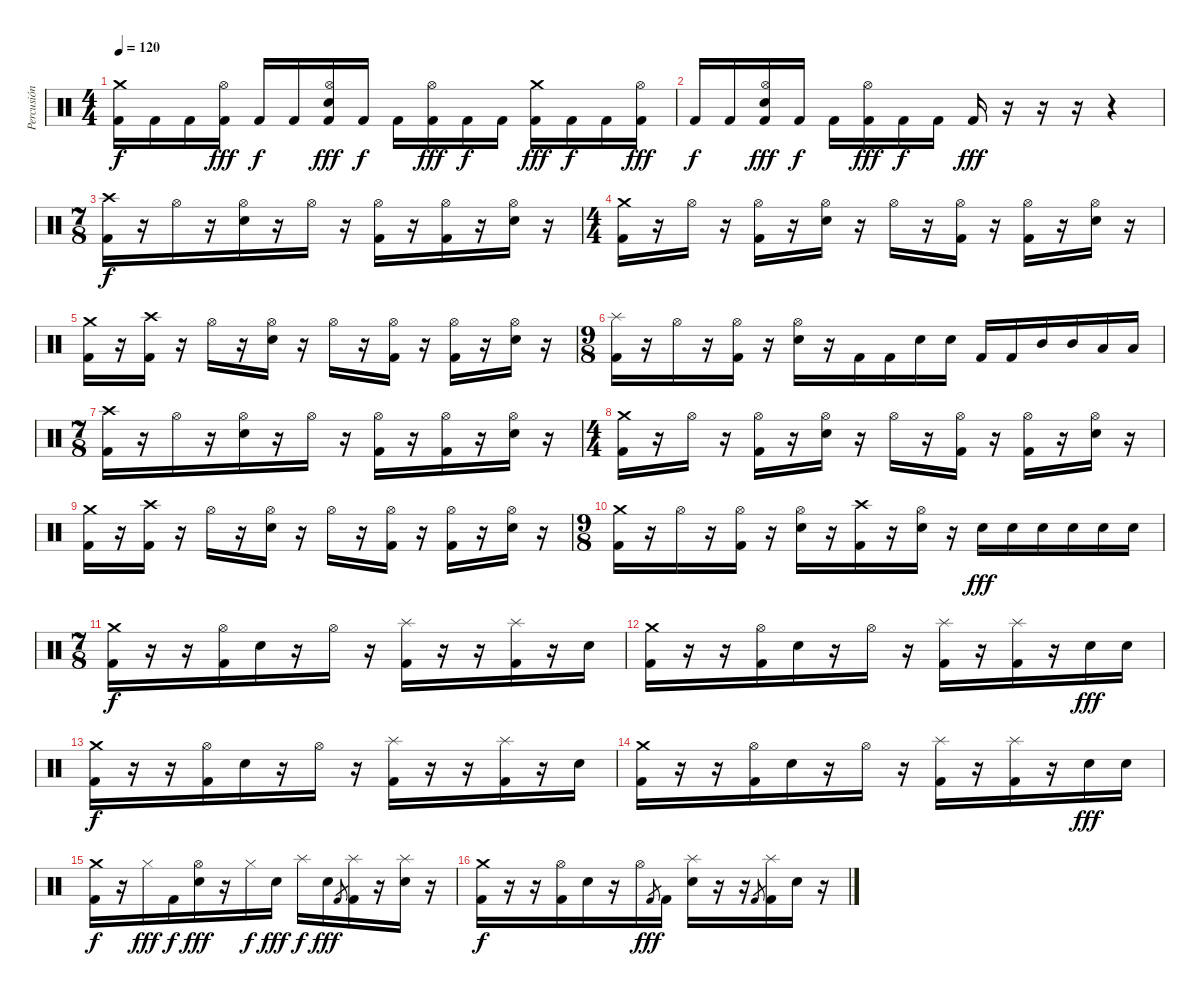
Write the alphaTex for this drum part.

\track ("Percusión" "Percusión") {instrument percussion}
\staff {score}
\articulation defaults
\ts (4 4)
\tempo 120
\clef neutral
\ks c
("Crash medium (hit)" "Kick (hit) 2").16{dy f} "Kick (hit) 2".16 "Kick (hit) 2".16 ("Hi-Hat (open)" "Kick (hit) 2").16{dy fff} "Kick (hit) 2".16{dy f} "Kick (hit) 2".16 ("Hi-Hat (open)" "Electric Snare (hit)" "Kick (hit) 2").16{dy fff} "Kick (hit) 2".16{dy f} "Kick (hit) 2".16 ("Hi-Hat (open)" "Kick (hit) 2").16{dy fff} "Kick (hit) 2".16{dy f} "Kick (hit) 2".16 ("Crash medium (hit)" "Kick (hit) 2").16{dy fff} "Kick (hit) 2".16{dy f} "Kick (hit) 2".16 ("Hi-Hat (open)" "Kick (hit) 2").16{dy fff} |
"Kick (hit) 2".16{dy f} "Kick (hit) 2".16 ("Hi-Hat (open)" "Electric Snare (hit)" "Kick (hit) 2").16{dy fff} "Kick (hit) 2".16{dy f} "Kick (hit) 2".16 ("Hi-Hat (open)" "Kick (hit) 2").16{dy fff} "Kick (hit) 2".16{dy f} "Kick (hit) 2".16 "Kick (hit) 2".16{dy fff} r.16 r.16 r.16 r.4 |
\ts (7 8)
("Crash high (hit)" "Kick (hit) 2").16{dy f} r.16 "Hi-Hat (open)".16 r.16 ("Hi-Hat (open)" "Electric Snare (hit)").16 r.16 "Hi-Hat (open)".16 r.16 ("Hi-Hat (open)" "Kick (hit) 2").16 r.16 ("Hi-Hat (open)" "Kick (hit) 2").16 r.16 ("Hi-Hat (open)" "Electric Snare (hit)").16 r.16 |
\ts (4 4)
("Crash medium (hit)" "Kick (hit) 2").16 r.16 "Hi-Hat (open)".16 r.16 ("Hi-Hat (open)" "Kick (hit) 2").16 r.16 ("Hi-Hat (open)" "Electric Snare (hit)").16 r.16 "Hi-Hat (open)".16 r.16 ("Hi-Hat (open)" "Kick (hit) 2").16 r.16 ("Hi-Hat (open)" "Kick (hit) 2").16 r.16 ("Hi-Hat (open)" "Electric Snare (hit)").16 r.16 |
("Crash medium (hit)" "Kick (hit) 2").16 r.16 ("Crash high (hit)" "Kick (hit) 2").16 r.16 "Hi-Hat (open)".16 r.16 ("Hi-Hat (open)" "Electric Snare (hit)").16 r.16 "Hi-Hat (open)".16 r.16 ("Hi-Hat (open)" "Kick (hit) 2").16 r.16 ("Hi-Hat (open)" "Kick (hit) 2").16 r.16 ("Hi-Hat (open)" "Electric Snare (hit)").16 r.16 |
\ts (9 8)
("Splash (hit)" "Kick (hit) 2").16 r.16 "Hi-Hat (open)".16 r.16 ("Hi-Hat (open)" "Kick (hit) 2").16 r.16 ("Hi-Hat (open)" "Electric Snare (hit)").16 r.16 "Kick (hit) 2".16 "Kick (hit) 2".16 "Electric Snare (hit)".16 "Electric Snare (hit)".16 "Kick (hit) 2".16 "Kick (hit) 2".16 "Mid Tom (hit)".16 "Mid Tom (hit)".16 "Low Tom (hit)".16 "Low Tom (hit)".16 |
\ts (7 8)
("Crash high (hit)" "Kick (hit) 2").16 r.16 "Hi-Hat (open)".16 r.16 ("Hi-Hat (open)" "Electric Snare (hit)").16 r.16 "Hi-Hat (open)".16 r.16 ("Hi-Hat (open)" "Kick (hit) 2").16 r.16 ("Hi-Hat (open)" "Kick (hit) 2").16 r.16 ("Hi-Hat (open)" "Electric Snare (hit)").16 r.16 |
\ts (4 4)
("Crash medium (hit)" "Kick (hit) 2").16 r.16 "Hi-Hat (open)".16 r.16 ("Hi-Hat (open)" "Kick (hit) 2").16 r.16 ("Hi-Hat (open)" "Electric Snare (hit)").16 r.16 "Hi-Hat (open)".16 r.16 ("Hi-Hat (open)" "Kick (hit) 2").16 r.16 ("Hi-Hat (open)" "Kick (hit) 2").16 r.16 ("Hi-Hat (open)" "Electric Snare (hit)").16 r.16 |
("Crash medium (hit)" "Kick (hit) 2").16 r.16 ("Crash high (hit)" "Kick (hit) 2").16 r.16 "Hi-Hat (open)".16 r.16 ("Hi-Hat (open)" "Electric Snare (hit)").16 r.16 "Hi-Hat (open)".16 r.16 ("Hi-Hat (open)" "Kick (hit) 2").16 r.16 ("Hi-Hat (open)" "Kick (hit) 2").16 r.16 ("Hi-Hat (open)" "Electric Snare (hit)").16 r.16 |
\ts (9 8)
("Crash medium (hit)" "Kick (hit) 2").16 r.16 "Hi-Hat (open)".16 r.16 ("Hi-Hat (open)" "Kick (hit) 2").16 r.16 ("Hi-Hat (open)" "Electric Snare (hit)").16 r.16 ("Crash high (hit)" "Kick (hit) 2").16 r.16 ("Hi-Hat (open)" "Electric Snare (hit)").16 r.16 "Electric Snare (hit)".16{dy fff} "Electric Snare (hit)".16 "Electric Snare (hit)".16 "Electric Snare (hit)".16 "Electric Snare (hit)".16 "Electric Snare (hit)".16 |
\ts (7 8)
("Crash medium (hit)" "Kick (hit) 2").16{dy f} r.16 r.16 ("Hi-Hat (open)" "Kick (hit) 2").16 "Electric Snare (hit)".16 r.16 "Hi-Hat (open)".16 r.16 ("Splash (hit)" "Kick (hit) 2").16 r.16 r.16 ("Splash (hit)" "Kick (hit) 2").16 r.16 "Electric Snare (hit)".16 |
("Crash medium (hit)" "Kick (hit) 2").16 r.16 r.16 ("Hi-Hat (open)" "Kick (hit) 2").16 "Electric Snare (hit)".16 r.16 "Hi-Hat (open)".16 r.16 ("Splash (hit)" "Kick (hit) 2").16 r.16 ("Splash (hit)" "Kick (hit) 2").16 r.16 "Electric Snare (hit)".16{dy fff} "Electric Snare (hit)".16 |
("Crash medium (hit)" "Kick (hit) 2").16{dy f} r.16 r.16 ("Hi-Hat (open)" "Kick (hit) 2").16 "Electric Snare (hit)".16 r.16 "Hi-Hat (open)".16 r.16 ("Splash (hit)" "Kick (hit) 2").16 r.16 r.16 ("Splash (hit)" "Kick (hit) 2").16 r.16 "Electric Snare (hit)".16 |
("Crash medium (hit)" "Kick (hit) 2").16 r.16 r.16 ("Hi-Hat (open)" "Kick (hit) 2").16 "Electric Snare (hit)".16 r.16 "Hi-Hat (open)".16 r.16 ("Splash (hit)" "Kick (hit) 2").16 r.16 ("Splash (hit)" "Kick (hit) 2").16 r.16 "Electric Snare (hit)".16{dy fff} "Electric Snare (hit)".16 |
("Crash medium (hit)" "Kick (hit) 2").16{dy f} r.16 "Hi-Hat (closed)".16{dy fff} "Kick (hit) 2".16{dy f} ("Hi-Hat (open)" "Electric Snare (hit)").16{dy fff} r.16 "Hi-Hat (closed)".16{dy f} "Electric Snare (hit)".16{dy fff} "Splash (hit)".16{dy f} "Electric Snare (hit)".16{dy fff} "Kick (hit) 2".8{gr} ("Splash (hit)" "Kick (hit) 2").16 r.16 ("Splash (hit)" "Electric Snare (hit)").16 r.16 |
("Crash medium (hit)" "Kick (hit) 2").16{dy f} r.16 r.16 ("Hi-Hat (open)" "Kick (hit) 2").16 "Electric Snare (hit)".16 r.16 "Hi-Hat (open)".16 "Kick (hit) 2".8{gr dy fff} "Kick (hit) 2".16 ("Splash (hit)" "Electric Snare (hit)").16 r.16 r.16 "Kick (hit) 2".8{gr} ("Splash (hit)" "Kick (hit) 2").16 "Electric Snare (hit)".16 r.16
